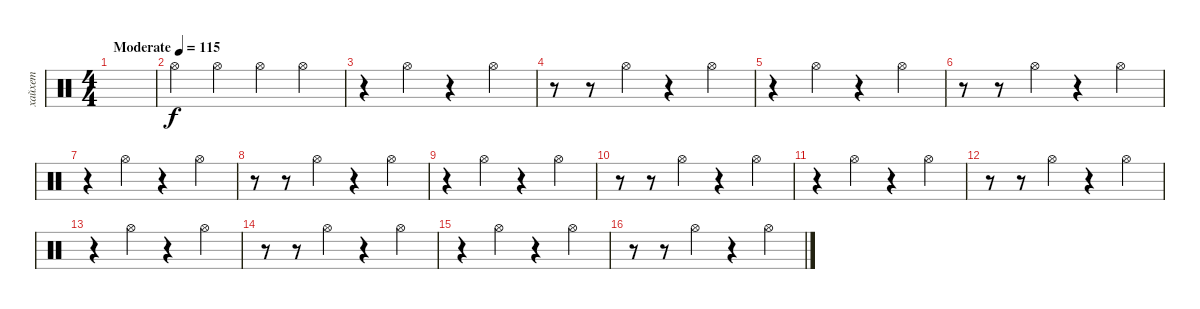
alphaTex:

\track ("хайхет" "хайхет") {mute instrument percussion}
\staff {score}
\articulation defaults
\ts (4 4)
\tempo (115 "Moderate")
\clef neutral
\ks c
|
"Hi-Hat (open)".4 "Hi-Hat (open)".4 "Hi-Hat (open)".4 "Hi-Hat (open)".4 |
r.4 "Hi-Hat (open)".4 r.4 "Hi-Hat (open)".4 |
r.8 r.8 "Hi-Hat (open)".4 r.4 "Hi-Hat (open)".4 |
r.4 "Hi-Hat (open)".4 r.4 "Hi-Hat (open)".4 |
r.8 r.8 "Hi-Hat (open)".4 r.4 "Hi-Hat (open)".4 |
r.4 "Hi-Hat (open)".4 r.4 "Hi-Hat (open)".4 |
r.8 r.8 "Hi-Hat (open)".4 r.4 "Hi-Hat (open)".4 |
r.4 "Hi-Hat (open)".4 r.4 "Hi-Hat (open)".4 |
r.8 r.8 "Hi-Hat (open)".4 r.4 "Hi-Hat (open)".4 |
r.4 "Hi-Hat (open)".4 r.4 "Hi-Hat (open)".4 |
r.8 r.8 "Hi-Hat (open)".4 r.4 "Hi-Hat (open)".4 |
r.4 "Hi-Hat (open)".4 r.4 "Hi-Hat (open)".4 |
r.8 r.8 "Hi-Hat (open)".4 r.4 "Hi-Hat (open)".4 |
r.4 "Hi-Hat (open)".4 r.4 "Hi-Hat (open)".4 |
r.8 r.8 "Hi-Hat (open)".4 r.4 "Hi-Hat (open)".4
